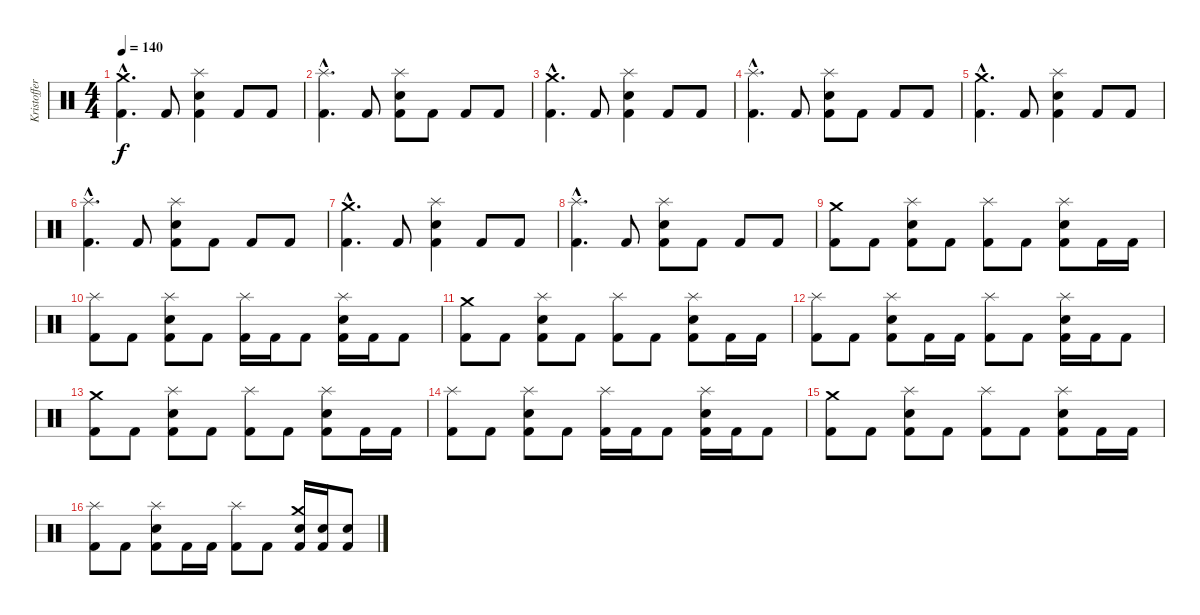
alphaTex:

\track ("Kristoffer (Drums)" "Kristoffer") {instrument percussion}
\staff {score}
\articulation defaults
\ts (4 4)
\tempo 140
\clef neutral
\ks c
("Kick (hit) 2"{hac} "Crash medium (hit)"{hac}).4{d dy f} "Kick (hit) 2".8 ("Kick (hit) 2" "Electric Snare (hit)" "Splash (hit)").4 "Kick (hit) 2".8 "Kick (hit) 2".8 |
("Kick (hit) 2"{hac} "Splash (hit)"{hac}).4{d} "Kick (hit) 2".8 ("Kick (hit) 2" "Electric Snare (hit)" "Splash (hit)").8 "Kick (hit) 2".8 "Kick (hit) 2".8 "Kick (hit) 2".8 |
("Kick (hit) 2"{hac} "Crash medium (hit)"{hac}).4{d} "Kick (hit) 2".8 ("Kick (hit) 2" "Electric Snare (hit)" "Splash (hit)").4 "Kick (hit) 2".8 "Kick (hit) 2".8 |
("Kick (hit) 2"{hac} "Splash (hit)"{hac}).4{d} "Kick (hit) 2".8 ("Kick (hit) 2" "Electric Snare (hit)" "Splash (hit)").8 "Kick (hit) 2".8 "Kick (hit) 2".8 "Kick (hit) 2".8 |
("Kick (hit) 2"{hac} "Crash medium (hit)"{hac}).4{d} "Kick (hit) 2".8 ("Kick (hit) 2" "Electric Snare (hit)" "Splash (hit)").4 "Kick (hit) 2".8 "Kick (hit) 2".8 |
("Kick (hit) 2"{hac} "Splash (hit)"{hac}).4{d} "Kick (hit) 2".8 ("Kick (hit) 2" "Electric Snare (hit)" "Splash (hit)").8 "Kick (hit) 2".8 "Kick (hit) 2".8 "Kick (hit) 2".8 |
("Kick (hit) 2"{hac} "Crash medium (hit)"{hac}).4{d} "Kick (hit) 2".8 ("Kick (hit) 2" "Electric Snare (hit)" "Splash (hit)").4 "Kick (hit) 2".8 "Kick (hit) 2".8 |
("Kick (hit) 2"{hac} "Splash (hit)"{hac}).4{d} "Kick (hit) 2".8 ("Kick (hit) 2" "Electric Snare (hit)" "Splash (hit)").8 "Kick (hit) 2".8 "Kick (hit) 2".8 "Kick (hit) 2".8 |
("Kick (hit) 2" "Crash medium (hit)").8 "Kick (hit) 2".8 ("Kick (hit) 2" "Electric Snare (hit)" "Splash (hit)").8 "Kick (hit) 2".8 ("Kick (hit) 2" "Splash (hit)").8 "Kick (hit) 2".8 ("Kick (hit) 2" "Electric Snare (hit)" "Splash (hit)").8 "Kick (hit) 2".16 "Kick (hit) 2".16 |
("Kick (hit) 2" "Splash (hit)").8 "Kick (hit) 2".8 ("Kick (hit) 2" "Electric Snare (hit)" "Splash (hit)").8 "Kick (hit) 2".8 ("Kick (hit) 2" "Splash (hit)").16 "Kick (hit) 2".16 "Kick (hit) 2".8 ("Kick (hit) 2" "Electric Snare (hit)" "Splash (hit)").16 "Kick (hit) 2".16 "Kick (hit) 2".8 |
("Kick (hit) 2" "Crash medium (hit)").8 "Kick (hit) 2".8 ("Kick (hit) 2" "Electric Snare (hit)" "Splash (hit)").8 "Kick (hit) 2".8 ("Kick (hit) 2" "Splash (hit)").8 "Kick (hit) 2".8 ("Kick (hit) 2" "Electric Snare (hit)" "Splash (hit)").8 "Kick (hit) 2".16 "Kick (hit) 2".16 |
("Kick (hit) 2" "Splash (hit)").8 "Kick (hit) 2".8 ("Kick (hit) 2" "Electric Snare (hit)" "Splash (hit)").8 "Kick (hit) 2".16 "Kick (hit) 2".16 ("Kick (hit) 2" "Splash (hit)").8 "Kick (hit) 2".8 ("Kick (hit) 2" "Electric Snare (hit)" "Splash (hit)").16 "Kick (hit) 2".16 "Kick (hit) 2".8 |
("Kick (hit) 2" "Crash medium (hit)").8 "Kick (hit) 2".8 ("Kick (hit) 2" "Electric Snare (hit)" "Splash (hit)").8 "Kick (hit) 2".8 ("Kick (hit) 2" "Splash (hit)").8 "Kick (hit) 2".8 ("Kick (hit) 2" "Electric Snare (hit)" "Splash (hit)").8 "Kick (hit) 2".16 "Kick (hit) 2".16 |
("Kick (hit) 2" "Splash (hit)").8 "Kick (hit) 2".8 ("Kick (hit) 2" "Electric Snare (hit)" "Splash (hit)").8 "Kick (hit) 2".8 ("Kick (hit) 2" "Splash (hit)").16 "Kick (hit) 2".16 "Kick (hit) 2".8 ("Kick (hit) 2" "Electric Snare (hit)" "Splash (hit)").16 "Kick (hit) 2".16 "Kick (hit) 2".8 |
("Kick (hit) 2" "Crash medium (hit)").8 "Kick (hit) 2".8 ("Kick (hit) 2" "Electric Snare (hit)" "Splash (hit)").8 "Kick (hit) 2".8 ("Kick (hit) 2" "Splash (hit)").8 "Kick (hit) 2".8 ("Kick (hit) 2" "Electric Snare (hit)" "Splash (hit)").8 "Kick (hit) 2".16 "Kick (hit) 2".16 |
("Kick (hit) 2" "Splash (hit)").8 "Kick (hit) 2".8 ("Kick (hit) 2" "Electric Snare (hit)" "Splash (hit)").8 "Kick (hit) 2".16 "Kick (hit) 2".16 ("Kick (hit) 2" "Splash (hit)").8 "Kick (hit) 2".8 ("Kick (hit) 2" "Electric Snare (hit)" "Crash medium (hit)").16 ("Kick (hit) 2" "Electric Snare (hit)").16 ("Kick (hit) 2" "Electric Snare (hit)").8
